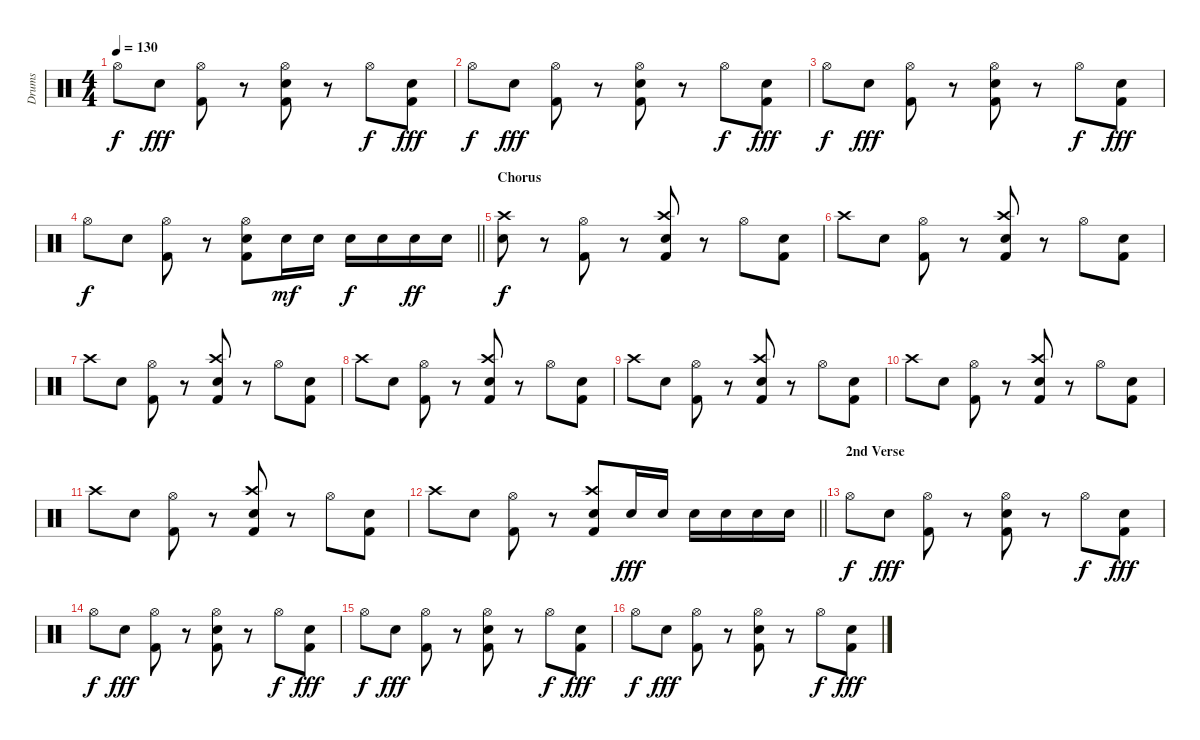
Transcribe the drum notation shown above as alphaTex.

\track ("Drums" "Drums") {instrument percussion}
\staff {score}
\articulation defaults
\ts (4 4)
\tempo 130
\clef neutral
\ks c "Hi-Hat (open)".8{dy f} "Snare (hit) 2".8{dy fff}
("Hi-Hat (open)" "Kick (hit) 2").8 r.8 ("Hi-Hat (open)" "Snare (hit) 2" "Kick (hit) 2").8 r.8 "Hi-Hat (open)".8{dy f} ("Snare (hit) 2" "Kick (hit) 2").8{dy fff} |
"Hi-Hat (open)".8{dy f} "Snare (hit) 2".8{dy fff} ("Hi-Hat (open)" "Kick (hit) 2").8 r.8 ("Hi-Hat (open)" "Snare (hit) 2" "Kick (hit) 2").8 r.8 "Hi-Hat (open)".8{dy f} ("Snare (hit) 2" "Kick (hit) 2").8{dy fff} |
"Hi-Hat (open)".8{dy f} "Snare (hit) 2".8{dy fff} ("Hi-Hat (open)" "Kick (hit) 2").8 r.8 ("Hi-Hat (open)" "Snare (hit) 2" "Kick (hit) 2").8 r.8 "Hi-Hat (open)".8{dy f} ("Snare (hit) 2" "Kick (hit) 2").8{dy fff} |
\barLineRight lightlight "Hi-Hat (open)".8{dy f} "Snare (hit) 2".8
("Hi-Hat (open)" "Kick (hit) 2").8 r.8 ("Hi-Hat (open)" "Snare (hit) 2" "Kick (hit) 2").8 "Snare (hit) 2".16{dy mf} "Snare (hit) 2".16 "Snare (hit) 2".16{dy f} "Snare (hit) 2".16 "Snare (hit) 2".16{dy ff} "Snare (hit) 2".16 |
\section ("" "Chorus")
("Crash high (hit)" "Electric Snare (hit)").8{dy f} r.8 ("Hi-Hat (open)" "Kick (hit) 2").8 r.8 ("Crash high (hit)" "Electric Snare (hit)" "Kick (hit) 2").8 r.8 "Hi-Hat (open)".8 ("Electric Snare (hit)" "Kick (hit) 2").8 |
"Crash high (hit)".8 "Electric Snare (hit)".8 ("Hi-Hat (open)" "Kick (hit) 2").8 r.8 ("Crash high (hit)" "Electric Snare (hit)" "Kick (hit) 2").8 r.8 "Hi-Hat (open)".8 ("Electric Snare (hit)" "Kick (hit) 2").8 |
"Crash high (hit)".8 "Electric Snare (hit)".8 ("Hi-Hat (open)" "Kick (hit) 2").8 r.8 ("Crash high (hit)" "Electric Snare (hit)" "Kick (hit) 2").8 r.8 "Hi-Hat (open)".8 ("Electric Snare (hit)" "Kick (hit) 2").8 |
"Crash high (hit)".8 "Electric Snare (hit)".8 ("Hi-Hat (open)" "Kick (hit) 2").8 r.8 ("Crash high (hit)" "Electric Snare (hit)" "Kick (hit) 2").8 r.8 "Hi-Hat (open)".8 ("Electric Snare (hit)" "Kick (hit) 2").8 |
"Crash high (hit)".8 "Electric Snare (hit)".8 ("Hi-Hat (open)" "Kick (hit) 2").8 r.8 ("Crash high (hit)" "Electric Snare (hit)" "Kick (hit) 2").8 r.8 "Hi-Hat (open)".8 ("Electric Snare (hit)" "Kick (hit) 2").8 |
"Crash high (hit)".8 "Electric Snare (hit)".8 ("Hi-Hat (open)" "Kick (hit) 2").8 r.8 ("Crash high (hit)" "Electric Snare (hit)" "Kick (hit) 2").8 r.8 "Hi-Hat (open)".8 ("Electric Snare (hit)" "Kick (hit) 2").8 |
"Crash high (hit)".8 "Electric Snare (hit)".8 ("Hi-Hat (open)" "Kick (hit) 2").8 r.8 ("Crash high (hit)" "Electric Snare (hit)" "Kick (hit) 2").8 r.8 "Hi-Hat (open)".8 ("Electric Snare (hit)" "Kick (hit) 2").8 |
\barLineRight lightlight "Crash high (hit)".8 "Electric Snare (hit)".8
("Hi-Hat (open)" "Kick (hit) 2").8 r.8 ("Crash high (hit)" "Electric Snare (hit)" "Kick (hit) 2").8 "Snare (hit) 2".16{dy fff} "Snare (hit) 2".16 "Snare (hit) 2".16 "Snare (hit) 2".16 "Snare (hit) 2".16 "Snare (hit) 2".16 |
\section ("" "2nd Verse")
"Hi-Hat (open)".8{dy f} "Snare (hit) 2".8{dy fff} ("Hi-Hat (open)" "Kick (hit) 2").8 r.8 ("Hi-Hat (open)" "Snare (hit) 2" "Kick (hit) 2").8 r.8 "Hi-Hat (open)".8{dy f} ("Snare (hit) 2" "Kick (hit) 2").8{dy fff} |
"Hi-Hat (open)".8{dy f} "Snare (hit) 2".8{dy fff} ("Hi-Hat (open)" "Kick (hit) 2").8 r.8 ("Hi-Hat (open)" "Snare (hit) 2" "Kick (hit) 2").8 r.8 "Hi-Hat (open)".8{dy f} ("Snare (hit) 2" "Kick (hit) 2").8{dy fff} |
"Hi-Hat (open)".8{dy f} "Snare (hit) 2".8{dy fff} ("Hi-Hat (open)" "Kick (hit) 2").8 r.8 ("Hi-Hat (open)" "Snare (hit) 2" "Kick (hit) 2").8 r.8 "Hi-Hat (open)".8{dy f} ("Snare (hit) 2" "Kick (hit) 2").8{dy fff} |
"Hi-Hat (open)".8{dy f} "Snare (hit) 2".8{dy fff} ("Hi-Hat (open)" "Kick (hit) 2").8 r.8 ("Hi-Hat (open)" "Snare (hit) 2" "Kick (hit) 2").8 r.8 "Hi-Hat (open)".8{dy f} ("Snare (hit) 2" "Kick (hit) 2").8{dy fff}
